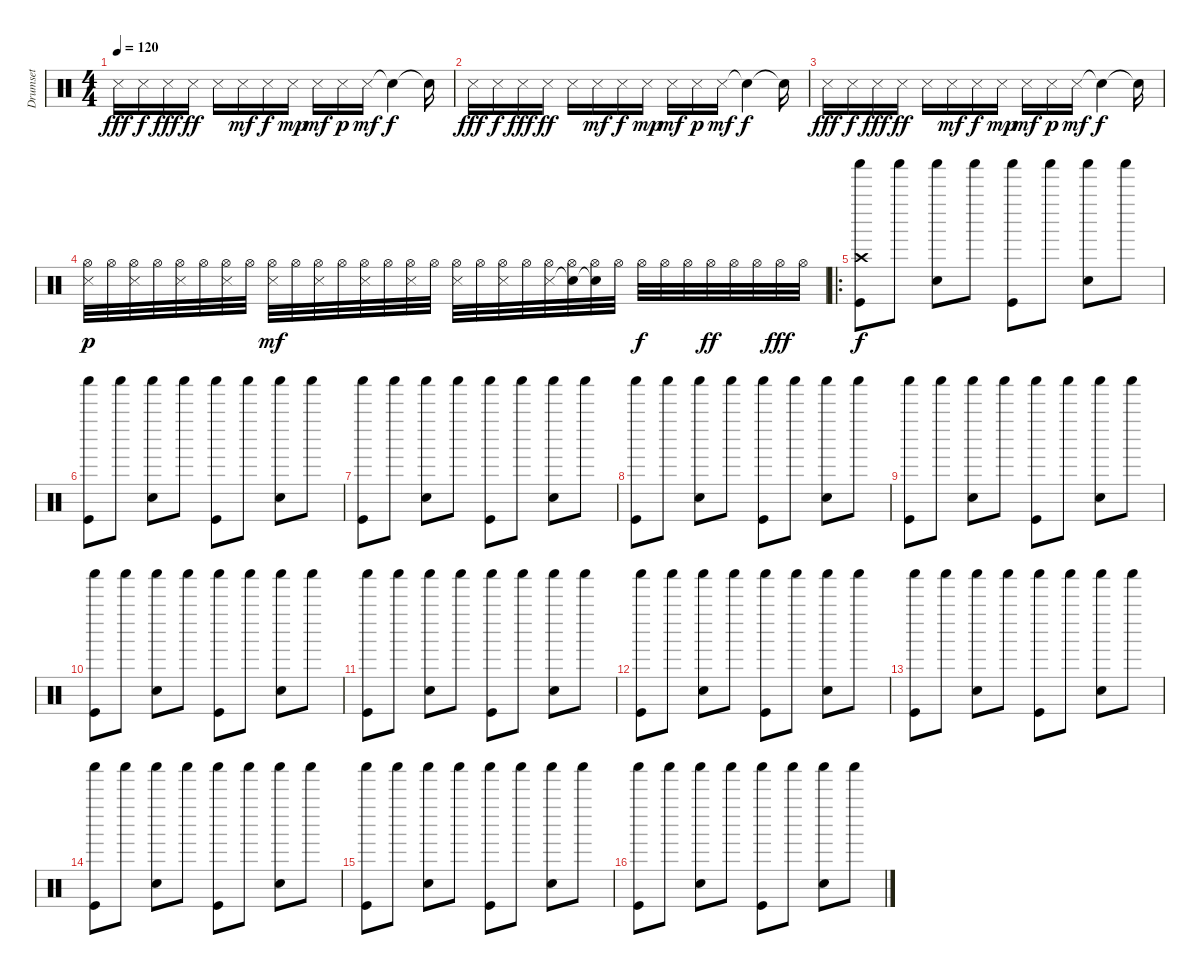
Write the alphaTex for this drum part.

\track ("Drumset" "Drumset") {instrument percussion}
\staff {score}
\articulation defaults
\ts (4 4)
\tempo 120
\clef neutral
\ks c "Snare (side stick) 3".16{dy fff} "Snare (side stick) 3".16{dy f} "Snare (side stick) 3".16{dy fff} "Snare (side stick) 3".16{dy ff} "Snare (side stick) 3".16 "Snare (side stick) 3".16{dy mf} "Snare (side stick) 3".16{dy f} "Snare (side stick) 3".16{dy mp} "Snare (side stick) 3".16{dy mf} "Snare (side stick) 3".16{dy p} "Snare (side stick) 3".16{dy mf} "Snare (hit)"{t}.4{dy f} "Snare (hit)"{t}.16
|
"Snare (side stick) 3".16{dy fff} "Snare (side stick) 3".16{dy f} "Snare (side stick) 3".16{dy fff} "Snare (side stick) 3".16{dy ff} "Snare (side stick) 3".16 "Snare (side stick) 3".16{dy mf} "Snare (side stick) 3".16{dy f} "Snare (side stick) 3".16{dy mp} "Snare (side stick) 3".16{dy mf} "Snare (side stick) 3".16{dy p} "Snare (side stick) 3".16{dy mf} "Snare (hit)"{t}.4{dy f} "Snare (hit)"{t}.16 |
"Snare (side stick) 3".16{dy fff} "Snare (side stick) 3".16{dy f} "Snare (side stick) 3".16{dy fff} "Snare (side stick) 3".16{dy ff} "Snare (side stick) 3".16 "Snare (side stick) 3".16{dy mf} "Snare (side stick) 3".16{dy f} "Snare (side stick) 3".16{dy mp} "Snare (side stick) 3".16{dy mf} "Snare (side stick) 3".16{dy p} "Snare (side stick) 3".16{dy mf} "Snare (hit)"{t}.4{dy f} "Snare (hit)"{t}.16 |
("Snare (side stick) 3" "Hi-Hat (open)").32{dy p} "Hi-Hat (open)".32 ("Snare (side stick) 3" "Hi-Hat (open)").32 "Hi-Hat (open)".32 ("Snare (side stick) 3" "Hi-Hat (open)").32 "Hi-Hat (open)".32 ("Snare (side stick) 3" "Hi-Hat (open)").32 "Hi-Hat (open)".32 ("Snare (side stick) 3" "Hi-Hat (open)").32{dy mf} "Hi-Hat (open)".32 ("Snare (side stick) 3" "Hi-Hat (open)").32 "Hi-Hat (open)".32 ("Snare (side stick) 3" "Hi-Hat (open)").32 "Hi-Hat (open)".32 ("Snare (side stick) 3" "Hi-Hat (open)").32 "Hi-Hat (open)".32 ("Snare (side stick) 3" "Hi-Hat (open)").32 "Hi-Hat (open)".32 ("Snare (side stick) 3" "Hi-Hat (open)").32 "Hi-Hat (open)".32 ("Snare (side stick) 3" "Hi-Hat (open)").32 ("Snare (hit)"{t} "Hi-Hat (open)").32 ("Snare (hit)"{t} "Hi-Hat (open)").32 "Hi-Hat (open)".32 "Hi-Hat (open)".32{dy f} "Hi-Hat (open)".32 "Hi-Hat (open)".32 "Hi-Hat (open)".32{dy ff} "Hi-Hat (open)".32 "Hi-Hat (open)".32 "Hi-Hat (open)".32{dy fff} "Hi-Hat (open)".32 |
\ro
("Shaker (hit)" "Crash high (hit)" "Kick (hit)").8{dy f} "Shaker (hit)".8 ("Shaker (hit)" "Snare (hit) 2").8 "Shaker (hit)".8 ("Shaker (hit)" "Kick (hit)").8 "Shaker (hit)".8 ("Shaker (hit)" "Snare (hit) 2").8 "Shaker (hit)".8 |
("Shaker (hit)" "Kick (hit)").8 "Shaker (hit)".8 ("Shaker (hit)" "Snare (hit) 2").8 "Shaker (hit)".8 ("Shaker (hit)" "Kick (hit)").8 "Shaker (hit)".8 ("Shaker (hit)" "Snare (hit) 2").8 "Shaker (hit)".8 |
("Shaker (hit)" "Kick (hit)").8 "Shaker (hit)".8 ("Shaker (hit)" "Snare (hit) 2").8 "Shaker (hit)".8 ("Shaker (hit)" "Kick (hit)").8 "Shaker (hit)".8 ("Shaker (hit)" "Snare (hit) 2").8 "Shaker (hit)".8 |
("Shaker (hit)" "Kick (hit)").8 "Shaker (hit)".8 ("Shaker (hit)" "Snare (hit) 2").8 "Shaker (hit)".8 ("Shaker (hit)" "Kick (hit)").8 "Shaker (hit)".8 ("Shaker (hit)" "Snare (hit) 2").8 "Shaker (hit)".8 |
("Shaker (hit)" "Kick (hit)").8 "Shaker (hit)".8 ("Shaker (hit)" "Snare (hit) 2").8 "Shaker (hit)".8 ("Shaker (hit)" "Kick (hit)").8 "Shaker (hit)".8 ("Shaker (hit)" "Snare (hit) 2").8 "Shaker (hit)".8 |
("Shaker (hit)" "Kick (hit)").8 "Shaker (hit)".8 ("Shaker (hit)" "Snare (hit) 2").8 "Shaker (hit)".8 ("Shaker (hit)" "Kick (hit)").8 "Shaker (hit)".8 ("Shaker (hit)" "Snare (hit) 2").8 "Shaker (hit)".8 |
("Shaker (hit)" "Kick (hit)").8 "Shaker (hit)".8 ("Shaker (hit)" "Snare (hit) 2").8 "Shaker (hit)".8 ("Shaker (hit)" "Kick (hit)").8 "Shaker (hit)".8 ("Shaker (hit)" "Snare (hit) 2").8 "Shaker (hit)".8 |
("Shaker (hit)" "Kick (hit)").8 "Shaker (hit)".8 ("Shaker (hit)" "Snare (hit) 2").8 "Shaker (hit)".8 ("Shaker (hit)" "Kick (hit)").8 "Shaker (hit)".8 ("Shaker (hit)" "Snare (hit) 2").8 "Shaker (hit)".8 |
("Shaker (hit)" "Kick (hit)").8 "Shaker (hit)".8 ("Shaker (hit)" "Snare (hit) 2").8 "Shaker (hit)".8 ("Shaker (hit)" "Kick (hit)").8 "Shaker (hit)".8 ("Shaker (hit)" "Snare (hit) 2").8 "Shaker (hit)".8 |
("Shaker (hit)" "Kick (hit)").8 "Shaker (hit)".8 ("Shaker (hit)" "Snare (hit) 2").8 "Shaker (hit)".8 ("Shaker (hit)" "Kick (hit)").8 "Shaker (hit)".8 ("Shaker (hit)" "Snare (hit) 2").8 "Shaker (hit)".8 |
("Shaker (hit)" "Kick (hit)").8 "Shaker (hit)".8 ("Shaker (hit)" "Snare (hit) 2").8 "Shaker (hit)".8 ("Shaker (hit)" "Kick (hit)").8 "Shaker (hit)".8 ("Shaker (hit)" "Snare (hit) 2").8 "Shaker (hit)".8 |
("Shaker (hit)" "Kick (hit)").8 "Shaker (hit)".8 ("Shaker (hit)" "Snare (hit) 2").8 "Shaker (hit)".8 ("Shaker (hit)" "Kick (hit)").8 "Shaker (hit)".8 ("Shaker (hit)" "Snare (hit) 2").8 "Shaker (hit)".8
